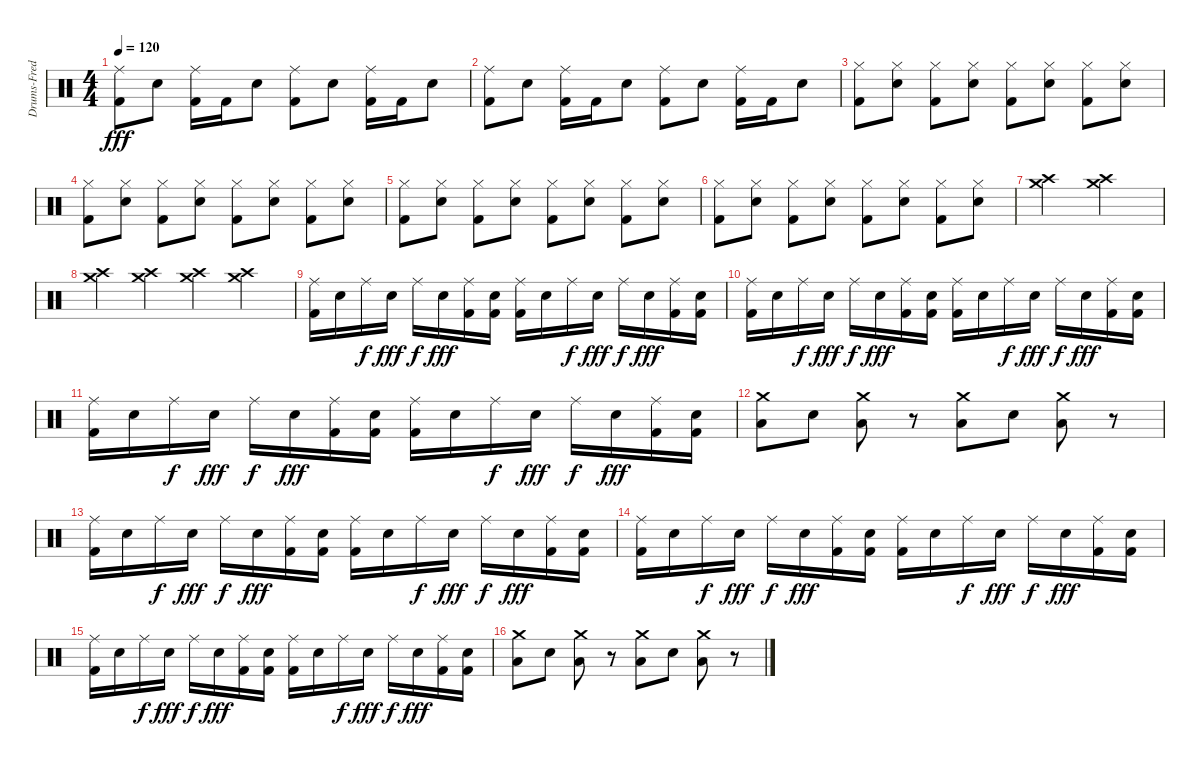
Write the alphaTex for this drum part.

\track ("Drums-Fred" "Drums-Fred") {instrument percussion}
\staff {score}
\articulation defaults
\ts (4 4)
\tempo 120
\clef neutral
\ks c
("Kick (hit) 2" "Ride (middle)").8{dy fff} "Snare (hit) 2".8 ("Kick (hit) 2" "Ride (middle)").16 "Kick (hit) 2".16 "Snare (hit) 2".8 ("Kick (hit) 2" "Ride (middle)").8 "Snare (hit) 2".8 ("Kick (hit) 2" "Ride (middle)").16 "Kick (hit) 2".16 "Snare (hit) 2".8 |
("Kick (hit) 2" "Ride (middle)").8 "Snare (hit) 2".8 ("Kick (hit) 2" "Ride (middle)").16 "Kick (hit) 2".16 "Snare (hit) 2".8 ("Kick (hit) 2" "Ride (middle)").8 "Snare (hit) 2".8 ("Kick (hit) 2" "Ride (middle)").16 "Kick (hit) 2".16 "Snare (hit) 2".8 |
("Kick (hit) 2" "Hi-Hat (closed)").8 ("Snare (hit) 2" "Hi-Hat (closed)").8 ("Kick (hit) 2" "Hi-Hat (closed)").8 ("Snare (hit) 2" "Hi-Hat (closed)").8 ("Kick (hit) 2" "Hi-Hat (closed)").8 ("Snare (hit) 2" "Hi-Hat (closed)").8 ("Kick (hit) 2" "Hi-Hat (closed)").8 ("Snare (hit) 2" "Hi-Hat (closed)").8 |
("Kick (hit) 2" "Hi-Hat (closed)").8 ("Snare (hit) 2" "Hi-Hat (closed)").8 ("Kick (hit) 2" "Hi-Hat (closed)").8 ("Snare (hit) 2" "Hi-Hat (closed)").8 ("Kick (hit) 2" "Hi-Hat (closed)").8 ("Snare (hit) 2" "Hi-Hat (closed)").8 ("Kick (hit) 2" "Hi-Hat (closed)").8 ("Snare (hit) 2" "Hi-Hat (closed)").8 |
("Kick (hit) 2" "Hi-Hat (closed)").8 ("Snare (hit) 2" "Hi-Hat (closed)").8 ("Kick (hit) 2" "Hi-Hat (closed)").8 ("Snare (hit) 2" "Hi-Hat (closed)").8 ("Kick (hit) 2" "Hi-Hat (closed)").8 ("Snare (hit) 2" "Hi-Hat (closed)").8 ("Kick (hit) 2" "Hi-Hat (closed)").8 ("Snare (hit) 2" "Hi-Hat (closed)").8 |
("Kick (hit) 2" "Hi-Hat (closed)").8 ("Snare (hit) 2" "Hi-Hat (closed)").8 ("Kick (hit) 2" "Hi-Hat (closed)").8 ("Snare (hit) 2" "Hi-Hat (closed)").8 ("Kick (hit) 2" "Hi-Hat (closed)").8 ("Snare (hit) 2" "Hi-Hat (closed)").8 ("Kick (hit) 2" "Hi-Hat (closed)").8 ("Snare (hit) 2" "Hi-Hat (closed)").8 |
("Crash high (hit)" "Crash medium (hit)").2 ("Crash high (hit)" "Crash medium (hit)").2 |
("Crash high (hit)" "Crash medium (hit)").4 ("Crash high (hit)" "Crash medium (hit)").4 ("Crash high (hit)" "Crash medium (hit)").4 ("Crash high (hit)" "Crash medium (hit)").4 |
("Kick (hit) 2" "Ride (middle)").16 "Snare (hit) 2".16 "Ride (middle)".16{dy f} "Snare (hit) 2".16{dy fff} "Ride (middle)".16{dy f} "Snare (hit) 2".16{dy fff} ("Kick (hit) 2" "Ride (middle)").16 ("Kick (hit) 2" "Snare (hit) 2").16 ("Kick (hit) 2" "Ride (middle)").16 "Snare (hit) 2".16 "Ride (middle)".16{dy f} "Snare (hit) 2".16{dy fff} "Ride (middle)".16{dy f} "Snare (hit) 2".16{dy fff} ("Kick (hit) 2" "Ride (middle)").16 ("Kick (hit) 2" "Snare (hit) 2").16 |
("Kick (hit) 2" "Ride (middle)").16 "Snare (hit) 2".16 "Ride (middle)".16{dy f} "Snare (hit) 2".16{dy fff} "Ride (middle)".16{dy f} "Snare (hit) 2".16{dy fff} ("Kick (hit) 2" "Ride (middle)").16 ("Kick (hit) 2" "Snare (hit) 2").16 ("Kick (hit) 2" "Ride (middle)").16 "Snare (hit) 2".16 "Ride (middle)".16{dy f} "Snare (hit) 2".16{dy fff} "Ride (middle)".16{dy f} "Snare (hit) 2".16{dy fff} ("Kick (hit) 2" "Ride (middle)").16 ("Kick (hit) 2" "Snare (hit) 2").16 |
("Kick (hit) 2" "Ride (middle)").16 "Snare (hit) 2".16 "Ride (middle)".16{dy f} "Snare (hit) 2".16{dy fff} "Ride (middle)".16{dy f} "Snare (hit) 2".16{dy fff} ("Kick (hit) 2" "Ride (middle)").16 ("Kick (hit) 2" "Snare (hit) 2").16 ("Kick (hit) 2" "Ride (middle)").16 "Snare (hit) 2".16 "Ride (middle)".16{dy f} "Snare (hit) 2".16{dy fff} "Ride (middle)".16{dy f} "Snare (hit) 2".16{dy fff} ("Kick (hit) 2" "Ride (middle)").16 ("Kick (hit) 2" "Snare (hit) 2").16 |
("Low Tom (hit)" "Crash medium (hit)").8 "Snare (hit) 2".8 ("Low Tom (hit)" "Crash medium (hit)").8 r.8 ("Low Tom (hit)" "Crash medium (hit)").8 "Snare (hit) 2".8 ("Low Tom (hit)" "Crash medium (hit)").8 r.8 |
("Kick (hit) 2" "Ride (middle)").16 "Snare (hit) 2".16 "Ride (middle)".16{dy f} "Snare (hit) 2".16{dy fff} "Ride (middle)".16{dy f} "Snare (hit) 2".16{dy fff} ("Kick (hit) 2" "Ride (middle)").16 ("Kick (hit) 2" "Snare (hit) 2").16 ("Kick (hit) 2" "Ride (middle)").16 "Snare (hit) 2".16 "Ride (middle)".16{dy f} "Snare (hit) 2".16{dy fff} "Ride (middle)".16{dy f} "Snare (hit) 2".16{dy fff} ("Kick (hit) 2" "Ride (middle)").16 ("Kick (hit) 2" "Snare (hit) 2").16 |
("Kick (hit) 2" "Ride (middle)").16 "Snare (hit) 2".16 "Ride (middle)".16{dy f} "Snare (hit) 2".16{dy fff} "Ride (middle)".16{dy f} "Snare (hit) 2".16{dy fff} ("Kick (hit) 2" "Ride (middle)").16 ("Kick (hit) 2" "Snare (hit) 2").16 ("Kick (hit) 2" "Ride (middle)").16 "Snare (hit) 2".16 "Ride (middle)".16{dy f} "Snare (hit) 2".16{dy fff} "Ride (middle)".16{dy f} "Snare (hit) 2".16{dy fff} ("Kick (hit) 2" "Ride (middle)").16 ("Kick (hit) 2" "Snare (hit) 2").16 |
("Kick (hit) 2" "Ride (middle)").16 "Snare (hit) 2".16 "Ride (middle)".16{dy f} "Snare (hit) 2".16{dy fff} "Ride (middle)".16{dy f} "Snare (hit) 2".16{dy fff} ("Kick (hit) 2" "Ride (middle)").16 ("Kick (hit) 2" "Snare (hit) 2").16 ("Kick (hit) 2" "Ride (middle)").16 "Snare (hit) 2".16 "Ride (middle)".16{dy f} "Snare (hit) 2".16{dy fff} "Ride (middle)".16{dy f} "Snare (hit) 2".16{dy fff} ("Kick (hit) 2" "Ride (middle)").16 ("Kick (hit) 2" "Snare (hit) 2").16 |
("Low Tom (hit)" "Crash medium (hit)").8 "Snare (hit) 2".8 ("Low Tom (hit)" "Crash medium (hit)").8 r.8 ("Low Tom (hit)" "Crash medium (hit)").8 "Snare (hit) 2".8 ("Low Tom (hit)" "Crash medium (hit)").8 r.8
